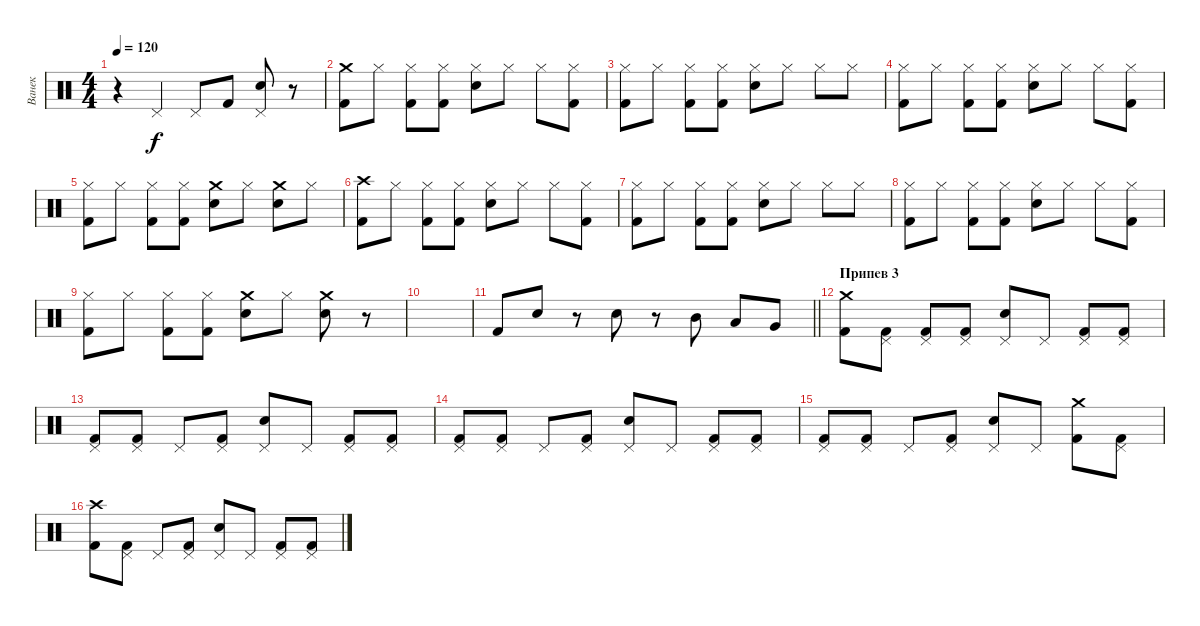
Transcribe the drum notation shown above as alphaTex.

\track ("Ванек" "Ванек") {instrument percussion}
\staff {score}
\articulation defaults
\ts (4 4)
\tempo 120
\clef neutral
\ks c
r.4{dy f} "Pedal Hi-Hat (hit)".4 "Pedal Hi-Hat (hit)".8 "Kick (hit) 2".8 ("Pedal Hi-Hat (hit)" "Electric Snare (hit)").8 r.8 |
("Crash medium (hit)" "Kick (hit) 2").8 "Hi-Hat (closed)".8 ("Hi-Hat (closed)" "Kick (hit) 2").8 ("Hi-Hat (closed)" "Kick (hit) 2").8 ("Hi-Hat (closed)" "Electric Snare (hit)").8 "Hi-Hat (closed)".8 "Hi-Hat (closed)".8 ("Hi-Hat (closed)" "Kick (hit) 2").8 |
("Hi-Hat (closed)" "Kick (hit) 2").8 "Hi-Hat (closed)".8 ("Hi-Hat (closed)" "Kick (hit) 2").8 ("Hi-Hat (closed)" "Kick (hit) 2").8 ("Hi-Hat (closed)" "Electric Snare (hit)").8 "Hi-Hat (closed)".8 "Hi-Hat (closed)".8 "Hi-Hat (closed)".8 |
("Hi-Hat (closed)" "Kick (hit) 2").8 "Hi-Hat (closed)".8 ("Hi-Hat (closed)" "Kick (hit) 2").8 ("Hi-Hat (closed)" "Kick (hit) 2").8 ("Hi-Hat (closed)" "Electric Snare (hit)").8 "Hi-Hat (closed)".8 "Hi-Hat (closed)".8 ("Hi-Hat (closed)" "Kick (hit) 2").8 |
("Hi-Hat (closed)" "Kick (hit) 2").8 "Hi-Hat (closed)".8 ("Hi-Hat (closed)" "Kick (hit) 2").8 ("Hi-Hat (closed)" "Kick (hit) 2").8 ("Crash medium (hit)" "Electric Snare (hit)").8 "Hi-Hat (closed)".8 ("Crash medium (hit)" "Electric Snare (hit)").8 "Hi-Hat (closed)".8 |
("Crash high (hit)" "Kick (hit) 2").8 "Hi-Hat (closed)".8 ("Hi-Hat (closed)" "Kick (hit) 2").8 ("Hi-Hat (closed)" "Kick (hit) 2").8 ("Hi-Hat (closed)" "Electric Snare (hit)").8 "Hi-Hat (closed)".8 "Hi-Hat (closed)".8 ("Hi-Hat (closed)" "Kick (hit) 2").8 |
("Hi-Hat (closed)" "Kick (hit) 2").8 "Hi-Hat (closed)".8 ("Hi-Hat (closed)" "Kick (hit) 2").8 ("Hi-Hat (closed)" "Kick (hit) 2").8 ("Hi-Hat (closed)" "Electric Snare (hit)").8 "Hi-Hat (closed)".8 "Hi-Hat (closed)".8 "Hi-Hat (closed)".8 |
("Hi-Hat (closed)" "Kick (hit) 2").8 "Hi-Hat (closed)".8 ("Hi-Hat (closed)" "Kick (hit) 2").8 ("Hi-Hat (closed)" "Kick (hit) 2").8 ("Hi-Hat (closed)" "Electric Snare (hit)").8 "Hi-Hat (closed)".8 "Hi-Hat (closed)".8 ("Hi-Hat (closed)" "Kick (hit) 2").8 |
("Hi-Hat (closed)" "Kick (hit) 2").8 "Hi-Hat (closed)".8 ("Hi-Hat (closed)" "Kick (hit) 2").8 ("Hi-Hat (closed)" "Kick (hit) 2").8 ("Crash medium (hit)" "Electric Snare (hit)").8 "Hi-Hat (closed)".8 ("Crash medium (hit)" "Electric Snare (hit)").8 r.8 |
|
\barLineRight lightlight "Kick (hit) 2".8 "Electric Snare (hit)".8
r.8 "Electric Snare (hit)".8 r.8 "Mid Tom (hit)".8 "Low Tom (hit)".8 "Very Low Tom (hit)".8 |
\section ("" "Припев 3")
("Kick (hit) 2" "Crash medium (hit)").8 ("Kick (hit) 2" "Pedal Hi-Hat (hit)").8 ("Kick (hit) 2" "Pedal Hi-Hat (hit)").8 ("Kick (hit) 2" "Pedal Hi-Hat (hit)").8 ("Electric Snare (hit)" "Pedal Hi-Hat (hit)").8 "Pedal Hi-Hat (hit)".8 ("Kick (hit) 2" "Pedal Hi-Hat (hit)").8 ("Kick (hit) 2" "Pedal Hi-Hat (hit)").8 |
("Kick (hit) 2" "Pedal Hi-Hat (hit)").8 ("Kick (hit) 2" "Pedal Hi-Hat (hit)").8 "Pedal Hi-Hat (hit)".8 ("Kick (hit) 2" "Pedal Hi-Hat (hit)").8 ("Electric Snare (hit)" "Pedal Hi-Hat (hit)").8 "Pedal Hi-Hat (hit)".8 ("Kick (hit) 2" "Pedal Hi-Hat (hit)").8 ("Kick (hit) 2" "Pedal Hi-Hat (hit)").8 |
("Kick (hit) 2" "Pedal Hi-Hat (hit)").8 ("Kick (hit) 2" "Pedal Hi-Hat (hit)").8 "Pedal Hi-Hat (hit)".8 ("Kick (hit) 2" "Pedal Hi-Hat (hit)").8 ("Electric Snare (hit)" "Pedal Hi-Hat (hit)").8 "Pedal Hi-Hat (hit)".8 ("Kick (hit) 2" "Pedal Hi-Hat (hit)").8 ("Kick (hit) 2" "Pedal Hi-Hat (hit)").8 |
("Kick (hit) 2" "Pedal Hi-Hat (hit)").8 ("Kick (hit) 2" "Pedal Hi-Hat (hit)").8 "Pedal Hi-Hat (hit)".8 ("Kick (hit) 2" "Pedal Hi-Hat (hit)").8 ("Electric Snare (hit)" "Pedal Hi-Hat (hit)").8 "Pedal Hi-Hat (hit)".8 ("Kick (hit) 2" "Crash medium (hit)").8 ("Kick (hit) 2" "Pedal Hi-Hat (hit)").8 |
("Kick (hit) 2" "Crash high (hit)").8 ("Kick (hit) 2" "Pedal Hi-Hat (hit)").8 "Pedal Hi-Hat (hit)".8 ("Kick (hit) 2" "Pedal Hi-Hat (hit)").8 ("Electric Snare (hit)" "Pedal Hi-Hat (hit)").8 "Pedal Hi-Hat (hit)".8 ("Kick (hit) 2" "Pedal Hi-Hat (hit)").8 ("Kick (hit) 2" "Pedal Hi-Hat (hit)").8
